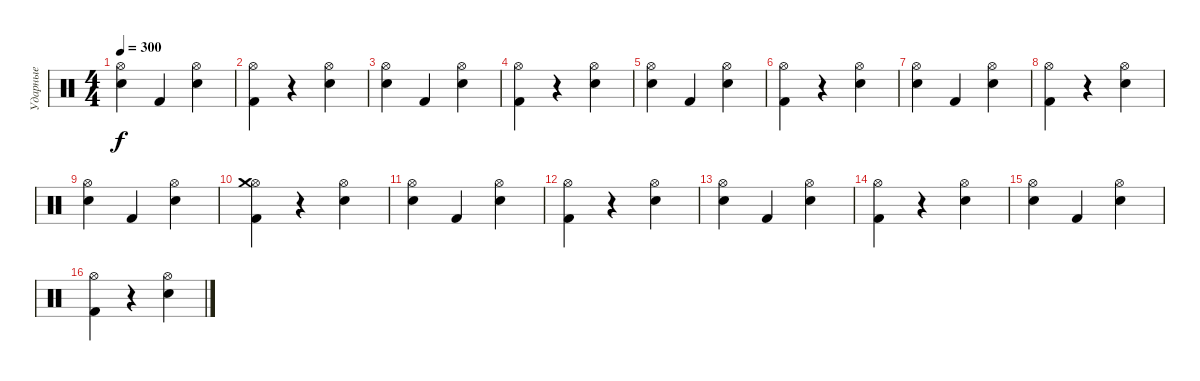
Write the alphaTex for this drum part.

\track ("Ударные" "Ударные") {instrument percussion}
\staff
\articulation defaults
\ts (4 4)
\tempo 300
\clef neutral
\ks c
("Snare (hit)" "Hi-Hat (open)").4{dy f} "Kick (hit) 2".4 ("Electric Snare (hit)" "Hi-Hat (open)").4 |
("Hi-Hat (open)" "Kick (hit) 2").4 r.4 ("Electric Snare (hit)" "Hi-Hat (open)").4 |
("Snare (hit)" "Hi-Hat (open)").4 "Kick (hit) 2".4 ("Electric Snare (hit)" "Hi-Hat (open)").4 |
("Hi-Hat (open)" "Kick (hit) 2").4 r.4 ("Electric Snare (hit)" "Hi-Hat (open)").4 |
("Snare (hit)" "Hi-Hat (open)").4 "Kick (hit) 2".4 ("Electric Snare (hit)" "Hi-Hat (open)").4 |
("Hi-Hat (open)" "Kick (hit) 2").4 r.4 ("Electric Snare (hit)" "Hi-Hat (open)").4 |
("Snare (hit)" "Hi-Hat (open)").4 "Kick (hit) 2".4 ("Electric Snare (hit)" "Hi-Hat (open)").4 |
("Hi-Hat (open)" "Kick (hit) 2").4 r.4 ("Electric Snare (hit)" "Hi-Hat (open)").4 |
("Snare (hit)" "Hi-Hat (open)").4 "Kick (hit) 2".4 ("Electric Snare (hit)" "Hi-Hat (open)").4 |
("Hi-Hat (open)" "Kick (hit) 2" "Crash medium (hit)").4 r.4 ("Electric Snare (hit)" "Hi-Hat (open)").4 |
("Snare (hit)" "Hi-Hat (open)").4 "Kick (hit) 2".4 ("Electric Snare (hit)" "Hi-Hat (open)").4 |
("Hi-Hat (open)" "Kick (hit) 2").4 r.4 ("Electric Snare (hit)" "Hi-Hat (open)").4 |
("Snare (hit)" "Hi-Hat (open)").4 "Kick (hit) 2".4 ("Electric Snare (hit)" "Hi-Hat (open)").4 |
("Hi-Hat (open)" "Kick (hit) 2").4 r.4 ("Electric Snare (hit)" "Hi-Hat (open)").4 |
("Snare (hit)" "Hi-Hat (open)").4 "Kick (hit) 2".4 ("Electric Snare (hit)" "Hi-Hat (open)").4 |
("Hi-Hat (open)" "Kick (hit) 2").4 r.4 ("Electric Snare (hit)" "Hi-Hat (open)").4
